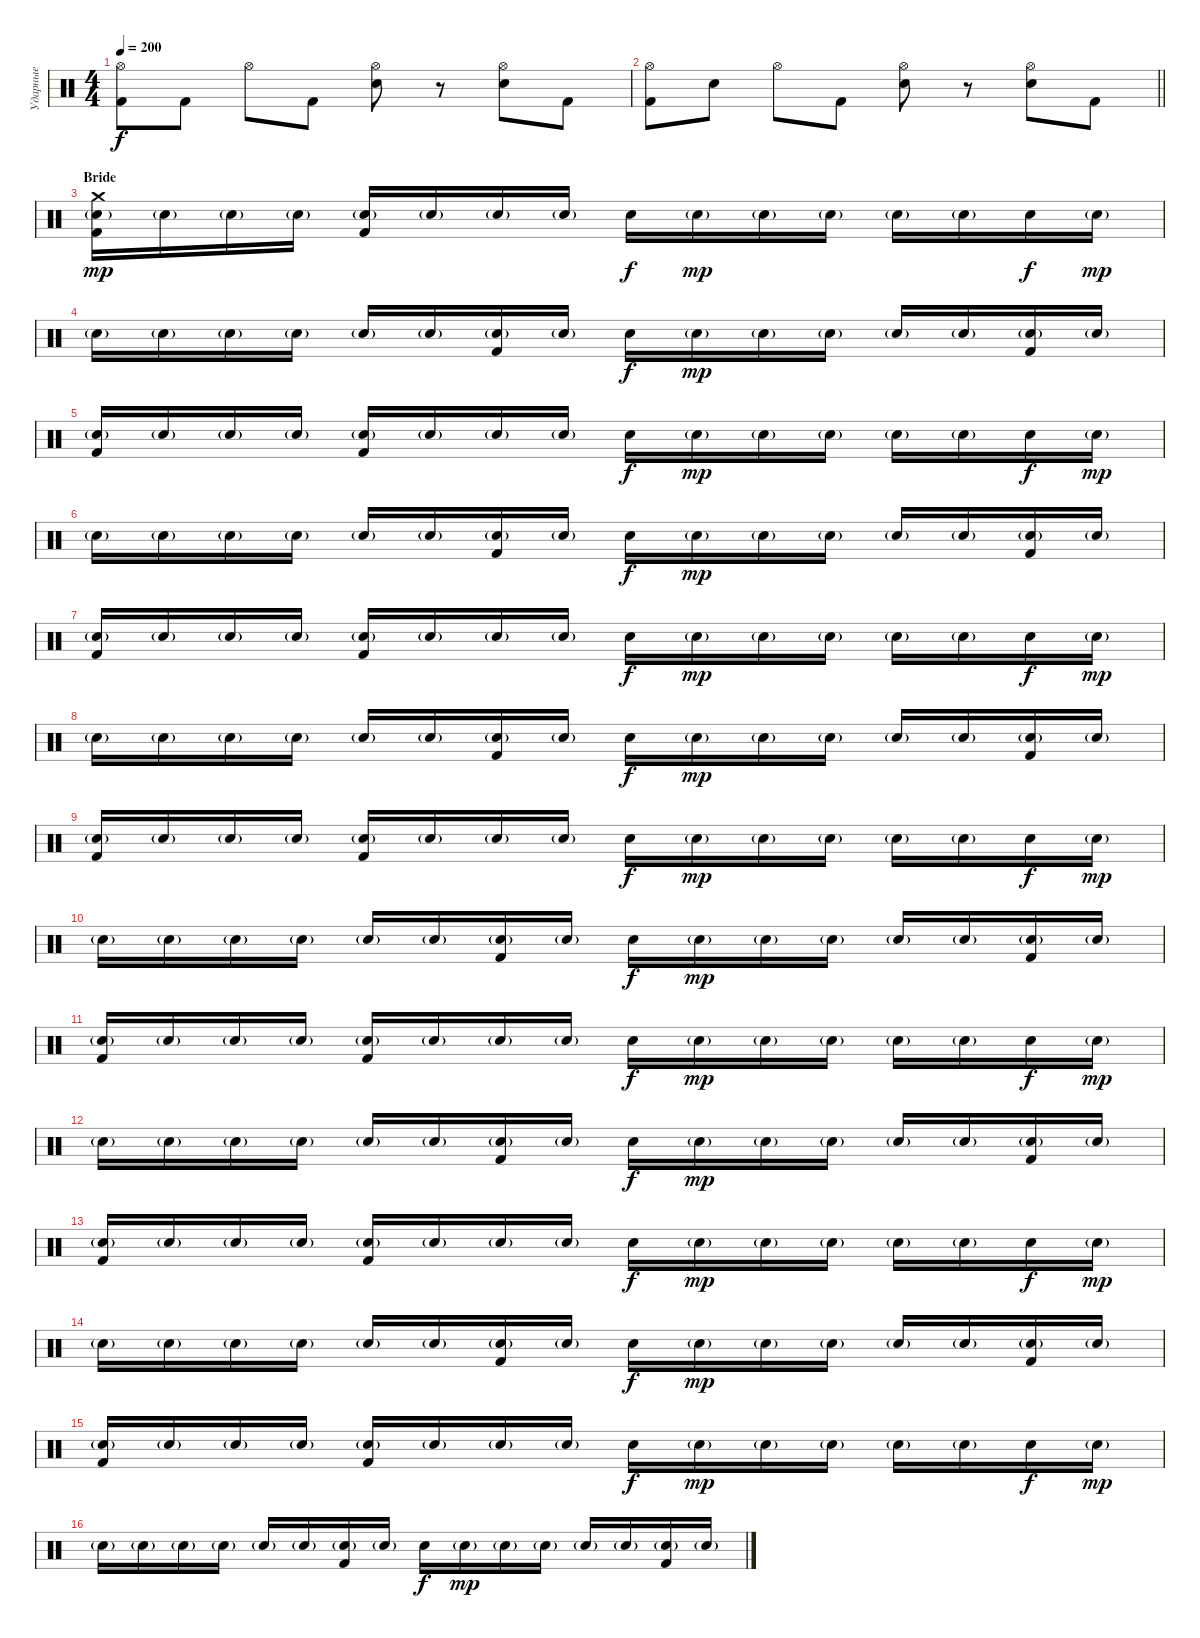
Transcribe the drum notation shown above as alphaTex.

\track ("Ударные" "Ударные") {instrument percussion}
\staff {score}
\articulation defaults
\ts (4 4)
\tempo 200
\clef neutral
\ks c
("Hi-Hat (open)" "Kick (hit) 2").8{dy f} "Kick (hit) 2".8 "Hi-Hat (open)".8 "Kick (hit) 2".8 ("Hi-Hat (open)" "Electric Snare (hit)").8 r.8 ("Hi-Hat (open)" "Electric Snare (hit)").8 "Kick (hit) 2".8 |
\barLineRight lightlight
("Hi-Hat (open)" "Kick (hit) 2").8 "Electric Snare (hit)".8 "Hi-Hat (open)".8 "Kick (hit) 2".8 ("Hi-Hat (open)" "Electric Snare (hit)").8 r.8 ("Hi-Hat (open)" "Electric Snare (hit)").8 "Kick (hit) 2".8 |
\section ("" "Bride")
("Crash medium (hit)" "Electric Snare (hit)"{g} "Kick (hit) 2").16{dy mp} "Electric Snare (hit)"{g}.16 "Electric Snare (hit)"{g}.16 "Electric Snare (hit)"{g}.16 ("Electric Snare (hit)"{g} "Kick (hit) 2").16 "Electric Snare (hit)"{g}.16 "Electric Snare (hit)"{g}.16 "Electric Snare (hit)"{g}.16 "Electric Snare (hit)".16{dy f} "Electric Snare (hit)"{g}.16{dy mp} "Electric Snare (hit)"{g}.16 "Electric Snare (hit)"{g}.16 "Electric Snare (hit)"{g}.16 "Electric Snare (hit)"{g}.16 "Electric Snare (hit)".16{dy f} "Electric Snare (hit)"{g}.16{dy mp} |
"Electric Snare (hit)"{g}.16 "Electric Snare (hit)"{g}.16 "Electric Snare (hit)"{g}.16 "Electric Snare (hit)"{g}.16 "Electric Snare (hit)"{g}.16 "Electric Snare (hit)"{g}.16 ("Electric Snare (hit)"{g} "Kick (hit) 2").16 "Electric Snare (hit)"{g}.16 "Electric Snare (hit)".16{dy f} "Electric Snare (hit)"{g}.16{dy mp} "Electric Snare (hit)"{g}.16 "Electric Snare (hit)"{g}.16 "Electric Snare (hit)"{g}.16 "Electric Snare (hit)"{g}.16 ("Electric Snare (hit)"{g} "Kick (hit) 2").16 "Electric Snare (hit)"{g}.16 |
("Electric Snare (hit)"{g} "Kick (hit) 2").16 "Electric Snare (hit)"{g}.16 "Electric Snare (hit)"{g}.16 "Electric Snare (hit)"{g}.16 ("Electric Snare (hit)"{g} "Kick (hit) 2").16 "Electric Snare (hit)"{g}.16 "Electric Snare (hit)"{g}.16 "Electric Snare (hit)"{g}.16 "Electric Snare (hit)".16{dy f} "Electric Snare (hit)"{g}.16{dy mp} "Electric Snare (hit)"{g}.16 "Electric Snare (hit)"{g}.16 "Electric Snare (hit)"{g}.16 "Electric Snare (hit)"{g}.16 "Electric Snare (hit)".16{dy f} "Electric Snare (hit)"{g}.16{dy mp} |
"Electric Snare (hit)"{g}.16 "Electric Snare (hit)"{g}.16 "Electric Snare (hit)"{g}.16 "Electric Snare (hit)"{g}.16 "Electric Snare (hit)"{g}.16 "Electric Snare (hit)"{g}.16 ("Electric Snare (hit)"{g} "Kick (hit) 2").16 "Electric Snare (hit)"{g}.16 "Electric Snare (hit)".16{dy f} "Electric Snare (hit)"{g}.16{dy mp} "Electric Snare (hit)"{g}.16 "Electric Snare (hit)"{g}.16 "Electric Snare (hit)"{g}.16 "Electric Snare (hit)"{g}.16 ("Electric Snare (hit)"{g} "Kick (hit) 2").16 "Electric Snare (hit)"{g}.16 |
("Electric Snare (hit)"{g} "Kick (hit) 2").16 "Electric Snare (hit)"{g}.16 "Electric Snare (hit)"{g}.16 "Electric Snare (hit)"{g}.16 ("Electric Snare (hit)"{g} "Kick (hit) 2").16 "Electric Snare (hit)"{g}.16 "Electric Snare (hit)"{g}.16 "Electric Snare (hit)"{g}.16 "Electric Snare (hit)".16{dy f} "Electric Snare (hit)"{g}.16{dy mp} "Electric Snare (hit)"{g}.16 "Electric Snare (hit)"{g}.16 "Electric Snare (hit)"{g}.16 "Electric Snare (hit)"{g}.16 "Electric Snare (hit)".16{dy f} "Electric Snare (hit)"{g}.16{dy mp} |
"Electric Snare (hit)"{g}.16 "Electric Snare (hit)"{g}.16 "Electric Snare (hit)"{g}.16 "Electric Snare (hit)"{g}.16 "Electric Snare (hit)"{g}.16 "Electric Snare (hit)"{g}.16 ("Electric Snare (hit)"{g} "Kick (hit) 2").16 "Electric Snare (hit)"{g}.16 "Electric Snare (hit)".16{dy f} "Electric Snare (hit)"{g}.16{dy mp} "Electric Snare (hit)"{g}.16 "Electric Snare (hit)"{g}.16 "Electric Snare (hit)"{g}.16 "Electric Snare (hit)"{g}.16 ("Electric Snare (hit)"{g} "Kick (hit) 2").16 "Electric Snare (hit)"{g}.16 |
("Electric Snare (hit)"{g} "Kick (hit) 2").16 "Electric Snare (hit)"{g}.16 "Electric Snare (hit)"{g}.16 "Electric Snare (hit)"{g}.16 ("Electric Snare (hit)"{g} "Kick (hit) 2").16 "Electric Snare (hit)"{g}.16 "Electric Snare (hit)"{g}.16 "Electric Snare (hit)"{g}.16 "Electric Snare (hit)".16{dy f} "Electric Snare (hit)"{g}.16{dy mp} "Electric Snare (hit)"{g}.16 "Electric Snare (hit)"{g}.16 "Electric Snare (hit)"{g}.16 "Electric Snare (hit)"{g}.16 "Electric Snare (hit)".16{dy f} "Electric Snare (hit)"{g}.16{dy mp} |
"Electric Snare (hit)"{g}.16 "Electric Snare (hit)"{g}.16 "Electric Snare (hit)"{g}.16 "Electric Snare (hit)"{g}.16 "Electric Snare (hit)"{g}.16 "Electric Snare (hit)"{g}.16 ("Electric Snare (hit)"{g} "Kick (hit) 2").16 "Electric Snare (hit)"{g}.16 "Electric Snare (hit)".16{dy f} "Electric Snare (hit)"{g}.16{dy mp} "Electric Snare (hit)"{g}.16 "Electric Snare (hit)"{g}.16 "Electric Snare (hit)"{g}.16 "Electric Snare (hit)"{g}.16 ("Electric Snare (hit)"{g} "Kick (hit) 2").16 "Electric Snare (hit)"{g}.16 |
("Electric Snare (hit)"{g} "Kick (hit) 2").16 "Electric Snare (hit)"{g}.16 "Electric Snare (hit)"{g}.16 "Electric Snare (hit)"{g}.16 ("Electric Snare (hit)"{g} "Kick (hit) 2").16 "Electric Snare (hit)"{g}.16 "Electric Snare (hit)"{g}.16 "Electric Snare (hit)"{g}.16 "Electric Snare (hit)".16{dy f} "Electric Snare (hit)"{g}.16{dy mp} "Electric Snare (hit)"{g}.16 "Electric Snare (hit)"{g}.16 "Electric Snare (hit)"{g}.16 "Electric Snare (hit)"{g}.16 "Electric Snare (hit)".16{dy f} "Electric Snare (hit)"{g}.16{dy mp} |
"Electric Snare (hit)"{g}.16 "Electric Snare (hit)"{g}.16 "Electric Snare (hit)"{g}.16 "Electric Snare (hit)"{g}.16 "Electric Snare (hit)"{g}.16 "Electric Snare (hit)"{g}.16 ("Electric Snare (hit)"{g} "Kick (hit) 2").16 "Electric Snare (hit)"{g}.16 "Electric Snare (hit)".16{dy f} "Electric Snare (hit)"{g}.16{dy mp} "Electric Snare (hit)"{g}.16 "Electric Snare (hit)"{g}.16 "Electric Snare (hit)"{g}.16 "Electric Snare (hit)"{g}.16 ("Electric Snare (hit)"{g} "Kick (hit) 2").16 "Electric Snare (hit)"{g}.16 |
("Electric Snare (hit)"{g} "Kick (hit) 2").16 "Electric Snare (hit)"{g}.16 "Electric Snare (hit)"{g}.16 "Electric Snare (hit)"{g}.16 ("Electric Snare (hit)"{g} "Kick (hit) 2").16 "Electric Snare (hit)"{g}.16 "Electric Snare (hit)"{g}.16 "Electric Snare (hit)"{g}.16 "Electric Snare (hit)".16{dy f} "Electric Snare (hit)"{g}.16{dy mp} "Electric Snare (hit)"{g}.16 "Electric Snare (hit)"{g}.16 "Electric Snare (hit)"{g}.16 "Electric Snare (hit)"{g}.16 "Electric Snare (hit)".16{dy f} "Electric Snare (hit)"{g}.16{dy mp} |
"Electric Snare (hit)"{g}.16 "Electric Snare (hit)"{g}.16 "Electric Snare (hit)"{g}.16 "Electric Snare (hit)"{g}.16 "Electric Snare (hit)"{g}.16 "Electric Snare (hit)"{g}.16 ("Electric Snare (hit)"{g} "Kick (hit) 2").16 "Electric Snare (hit)"{g}.16 "Electric Snare (hit)".16{dy f} "Electric Snare (hit)"{g}.16{dy mp} "Electric Snare (hit)"{g}.16 "Electric Snare (hit)"{g}.16 "Electric Snare (hit)"{g}.16 "Electric Snare (hit)"{g}.16 ("Electric Snare (hit)"{g} "Kick (hit) 2").16 "Electric Snare (hit)"{g}.16 |
("Electric Snare (hit)"{g} "Kick (hit) 2").16 "Electric Snare (hit)"{g}.16 "Electric Snare (hit)"{g}.16 "Electric Snare (hit)"{g}.16 ("Electric Snare (hit)"{g} "Kick (hit) 2").16 "Electric Snare (hit)"{g}.16 "Electric Snare (hit)"{g}.16 "Electric Snare (hit)"{g}.16 "Electric Snare (hit)".16{dy f} "Electric Snare (hit)"{g}.16{dy mp} "Electric Snare (hit)"{g}.16 "Electric Snare (hit)"{g}.16 "Electric Snare (hit)"{g}.16 "Electric Snare (hit)"{g}.16 "Electric Snare (hit)".16{dy f} "Electric Snare (hit)"{g}.16{dy mp} |
"Electric Snare (hit)"{g}.16 "Electric Snare (hit)"{g}.16 "Electric Snare (hit)"{g}.16 "Electric Snare (hit)"{g}.16 "Electric Snare (hit)"{g}.16 "Electric Snare (hit)"{g}.16 ("Electric Snare (hit)"{g} "Kick (hit) 2").16 "Electric Snare (hit)"{g}.16 "Electric Snare (hit)".16{dy f} "Electric Snare (hit)"{g}.16{dy mp} "Electric Snare (hit)"{g}.16 "Electric Snare (hit)"{g}.16 "Electric Snare (hit)"{g}.16 "Electric Snare (hit)"{g}.16 ("Electric Snare (hit)"{g} "Kick (hit) 2").16 "Electric Snare (hit)"{g}.16
